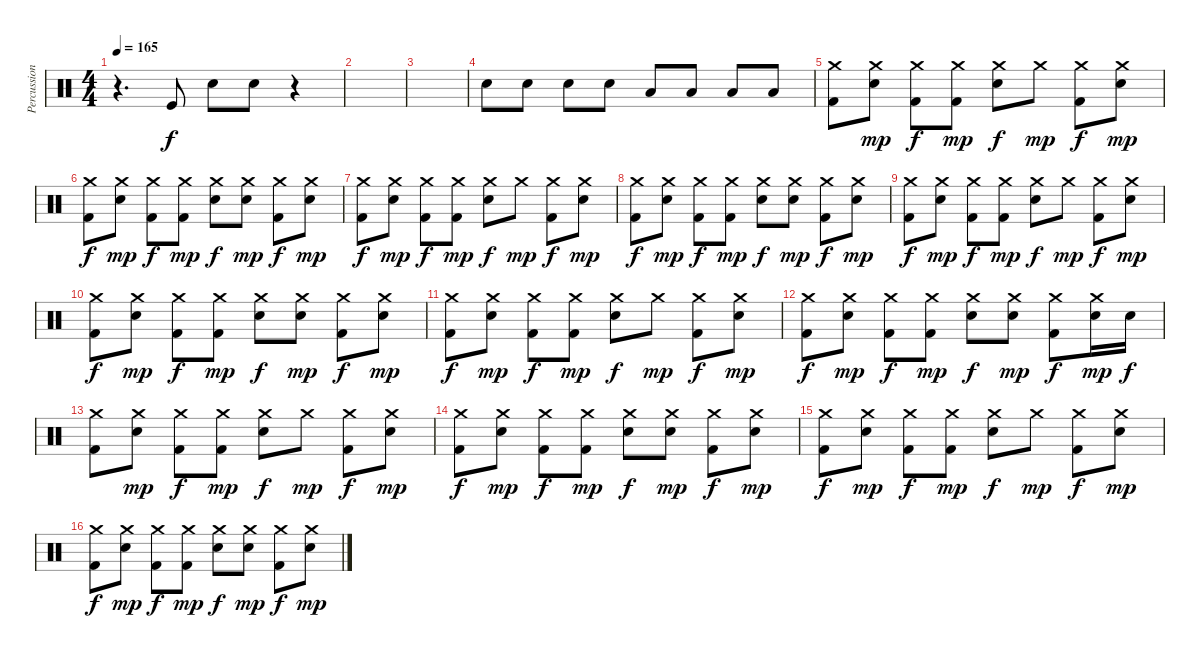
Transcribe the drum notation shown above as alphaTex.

\track ("Percussion" "Percussion") {instrument percussion}
\staff {score}
\articulation defaults
\ts (4 4)
\tempo 165
\clef neutral
\ks c
r.4{d dy f} "Kick (hit)".8 "Electric Snare (hit)".8 "Electric Snare (hit)".8 r.4 |
|
|
"Snare (hit) 2".8{volume 16 balance 8} "Snare (hit) 2".8 "Snare (hit) 2".8 "Snare (hit) 2".8 "Low Tom (hit)".8 "Low Tom (hit)".8 "Low Tom (hit)".8 "Low Tom (hit)".8 |
("Crash medium (hit)" "Kick (hit) 2").8 ("Crash medium (hit)" "Snare (hit) 2").8{dy mp} ("Crash medium (hit)" "Kick (hit) 2").8{dy f} ("Crash medium (hit)" "Kick (hit) 2").8{dy mp} ("Crash medium (hit)" "Snare (hit) 2").8{dy f} "Crash medium (hit)".8{dy mp} ("Crash medium (hit)" "Kick (hit) 2").8{dy f} ("Crash medium (hit)" "Snare (hit) 2").8{dy mp} |
("Crash medium (hit)" "Kick (hit) 2").8{dy f} ("Crash medium (hit)" "Snare (hit) 2").8{dy mp} ("Crash medium (hit)" "Kick (hit) 2").8{dy f} ("Crash medium (hit)" "Kick (hit) 2").8{dy mp} ("Crash medium (hit)" "Snare (hit) 2").8{dy f} ("Crash medium (hit)" "Snare (hit) 2").8{dy mp} ("Crash medium (hit)" "Kick (hit) 2").8{dy f} ("Crash medium (hit)" "Snare (hit) 2").8{dy mp} |
("Crash medium (hit)" "Kick (hit) 2").8{dy f} ("Crash medium (hit)" "Snare (hit) 2").8{dy mp} ("Crash medium (hit)" "Kick (hit) 2").8{dy f} ("Crash medium (hit)" "Kick (hit) 2").8{dy mp} ("Crash medium (hit)" "Snare (hit) 2").8{dy f} "Crash medium (hit)".8{dy mp} ("Crash medium (hit)" "Kick (hit) 2").8{dy f} ("Crash medium (hit)" "Snare (hit) 2").8{dy mp} |
("Crash medium (hit)" "Kick (hit) 2").8{dy f} ("Crash medium (hit)" "Snare (hit) 2").8{dy mp} ("Crash medium (hit)" "Kick (hit) 2").8{dy f} ("Crash medium (hit)" "Kick (hit) 2").8{dy mp} ("Crash medium (hit)" "Snare (hit) 2").8{dy f} ("Crash medium (hit)" "Snare (hit) 2").8{dy mp} ("Crash medium (hit)" "Kick (hit) 2").8{dy f} ("Crash medium (hit)" "Snare (hit) 2").8{dy mp} |
("Crash medium (hit)" "Kick (hit) 2").8{dy f} ("Crash medium (hit)" "Snare (hit) 2").8{dy mp} ("Crash medium (hit)" "Kick (hit) 2").8{dy f} ("Crash medium (hit)" "Kick (hit) 2").8{dy mp} ("Crash medium (hit)" "Snare (hit) 2").8{dy f} "Crash medium (hit)".8{dy mp} ("Crash medium (hit)" "Kick (hit) 2").8{dy f} ("Crash medium (hit)" "Snare (hit) 2").8{dy mp} |
("Crash medium (hit)" "Kick (hit) 2").8{dy f} ("Crash medium (hit)" "Snare (hit) 2").8{dy mp} ("Crash medium (hit)" "Kick (hit) 2").8{dy f} ("Crash medium (hit)" "Kick (hit) 2").8{dy mp} ("Crash medium (hit)" "Snare (hit) 2").8{dy f} ("Crash medium (hit)" "Snare (hit) 2").8{dy mp} ("Crash medium (hit)" "Kick (hit) 2").8{dy f} ("Crash medium (hit)" "Snare (hit) 2").8{dy mp} |
("Crash medium (hit)" "Kick (hit) 2").8{dy f} ("Crash medium (hit)" "Snare (hit) 2").8{dy mp} ("Crash medium (hit)" "Kick (hit) 2").8{dy f} ("Crash medium (hit)" "Kick (hit) 2").8{dy mp} ("Crash medium (hit)" "Snare (hit) 2").8{dy f} "Crash medium (hit)".8{dy mp} ("Crash medium (hit)" "Kick (hit) 2").8{dy f} ("Crash medium (hit)" "Snare (hit) 2").8{dy mp} |
("Crash medium (hit)" "Kick (hit) 2").8{dy f} ("Crash medium (hit)" "Snare (hit) 2").8{dy mp} ("Crash medium (hit)" "Kick (hit) 2").8{dy f} ("Crash medium (hit)" "Kick (hit) 2").8{dy mp} ("Crash medium (hit)" "Snare (hit) 2").8{dy f} ("Crash medium (hit)" "Snare (hit) 2").8{dy mp} ("Crash medium (hit)" "Kick (hit) 2").8{dy f} ("Crash medium (hit)" "Snare (hit) 2").16{dy mp} "Snare (hit) 2".16{dy f} |
("Crash medium (hit)" "Kick (hit) 2").8 ("Crash medium (hit)" "Snare (hit) 2").8{dy mp} ("Crash medium (hit)" "Kick (hit) 2").8{dy f} ("Crash medium (hit)" "Kick (hit) 2").8{dy mp} ("Crash medium (hit)" "Snare (hit) 2").8{dy f} "Crash medium (hit)".8{dy mp} ("Crash medium (hit)" "Kick (hit) 2").8{dy f} ("Crash medium (hit)" "Snare (hit) 2").8{dy mp} |
("Crash medium (hit)" "Kick (hit) 2").8{dy f} ("Crash medium (hit)" "Snare (hit) 2").8{dy mp} ("Crash medium (hit)" "Kick (hit) 2").8{dy f} ("Crash medium (hit)" "Kick (hit) 2").8{dy mp} ("Crash medium (hit)" "Snare (hit) 2").8{dy f} ("Crash medium (hit)" "Snare (hit) 2").8{dy mp} ("Crash medium (hit)" "Kick (hit) 2").8{dy f} ("Crash medium (hit)" "Snare (hit) 2").8{dy mp} |
("Crash medium (hit)" "Kick (hit) 2").8{dy f} ("Crash medium (hit)" "Snare (hit) 2").8{dy mp} ("Crash medium (hit)" "Kick (hit) 2").8{dy f} ("Crash medium (hit)" "Kick (hit) 2").8{dy mp} ("Crash medium (hit)" "Snare (hit) 2").8{dy f} "Crash medium (hit)".8{dy mp} ("Crash medium (hit)" "Kick (hit) 2").8{dy f} ("Crash medium (hit)" "Snare (hit) 2").8{dy mp} |
("Crash medium (hit)" "Kick (hit) 2").8{dy f} ("Crash medium (hit)" "Snare (hit) 2").8{dy mp} ("Crash medium (hit)" "Kick (hit) 2").8{dy f} ("Crash medium (hit)" "Kick (hit) 2").8{dy mp} ("Crash medium (hit)" "Snare (hit) 2").8{dy f} ("Crash medium (hit)" "Snare (hit) 2").8{dy mp} ("Crash medium (hit)" "Kick (hit) 2").8{dy f} ("Crash medium (hit)" "Snare (hit) 2").8{dy mp}
